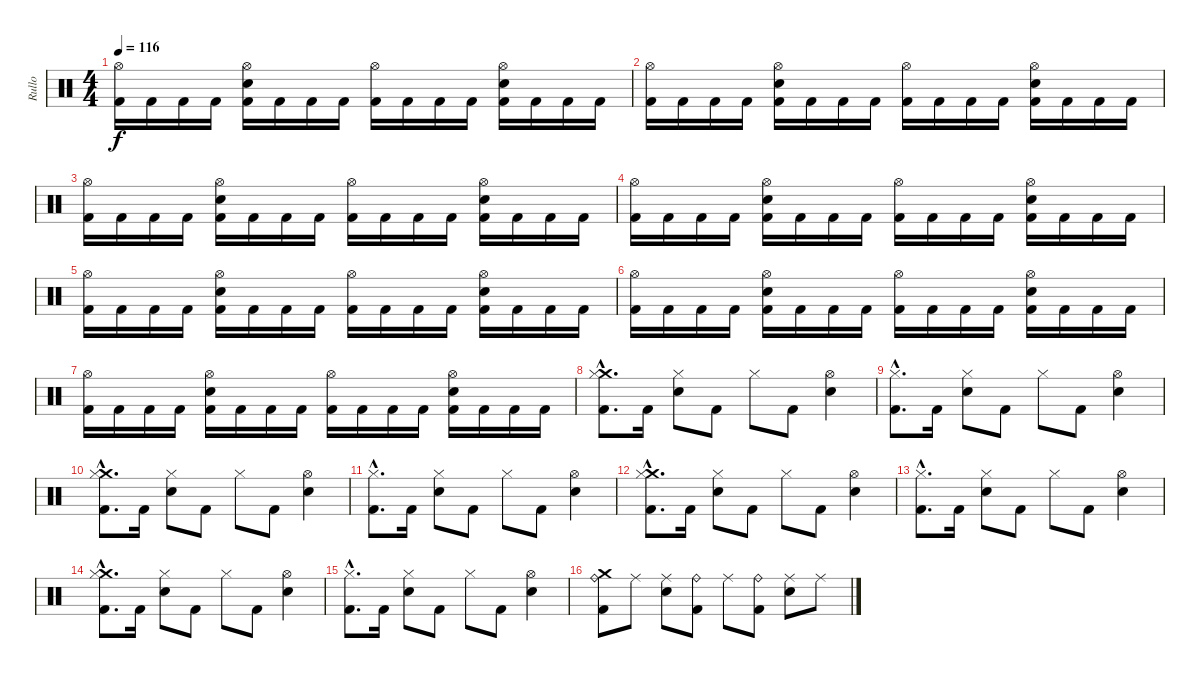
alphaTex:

\track ("Rullo" "Rullo") {instrument percussion}
\staff {score}
\articulation defaults
\ts (4 4)
\tempo 116
\clef neutral
\ks c
("Hi-Hat (open)" "Kick (hit) 2").16{dy f} "Kick (hit) 2".16 "Kick (hit) 2".16 "Kick (hit) 2".16 ("Hi-Hat (open)" "Electric Snare (hit)" "Kick (hit) 2").16 "Kick (hit) 2".16 "Kick (hit) 2".16 "Kick (hit) 2".16 ("Hi-Hat (open)" "Kick (hit) 2").16 "Kick (hit) 2".16 "Kick (hit) 2".16 "Kick (hit) 2".16 ("Hi-Hat (open)" "Electric Snare (hit)" "Kick (hit) 2").16 "Kick (hit) 2".16 "Kick (hit) 2".16 "Kick (hit) 2".16 |
("Hi-Hat (open)" "Kick (hit) 2").16 "Kick (hit) 2".16 "Kick (hit) 2".16 "Kick (hit) 2".16 ("Hi-Hat (open)" "Electric Snare (hit)" "Kick (hit) 2").16 "Kick (hit) 2".16 "Kick (hit) 2".16 "Kick (hit) 2".16 ("Hi-Hat (open)" "Kick (hit) 2").16 "Kick (hit) 2".16 "Kick (hit) 2".16 "Kick (hit) 2".16 ("Hi-Hat (open)" "Electric Snare (hit)" "Kick (hit) 2").16 "Kick (hit) 2".16 "Kick (hit) 2".16 "Kick (hit) 2".16 |
("Hi-Hat (open)" "Kick (hit) 2").16 "Kick (hit) 2".16 "Kick (hit) 2".16 "Kick (hit) 2".16 ("Hi-Hat (open)" "Electric Snare (hit)" "Kick (hit) 2").16 "Kick (hit) 2".16 "Kick (hit) 2".16 "Kick (hit) 2".16 ("Hi-Hat (open)" "Kick (hit) 2").16 "Kick (hit) 2".16 "Kick (hit) 2".16 "Kick (hit) 2".16 ("Hi-Hat (open)" "Electric Snare (hit)" "Kick (hit) 2").16 "Kick (hit) 2".16 "Kick (hit) 2".16 "Kick (hit) 2".16 |
("Hi-Hat (open)" "Kick (hit) 2").16 "Kick (hit) 2".16 "Kick (hit) 2".16 "Kick (hit) 2".16 ("Hi-Hat (open)" "Electric Snare (hit)" "Kick (hit) 2").16 "Kick (hit) 2".16 "Kick (hit) 2".16 "Kick (hit) 2".16 ("Hi-Hat (open)" "Kick (hit) 2").16 "Kick (hit) 2".16 "Kick (hit) 2".16 "Kick (hit) 2".16 ("Hi-Hat (open)" "Electric Snare (hit)" "Kick (hit) 2").16 "Kick (hit) 2".16 "Kick (hit) 2".16 "Kick (hit) 2".16 |
("Hi-Hat (open)" "Kick (hit) 2").16 "Kick (hit) 2".16 "Kick (hit) 2".16 "Kick (hit) 2".16 ("Hi-Hat (open)" "Electric Snare (hit)" "Kick (hit) 2").16 "Kick (hit) 2".16 "Kick (hit) 2".16 "Kick (hit) 2".16 ("Hi-Hat (open)" "Kick (hit) 2").16 "Kick (hit) 2".16 "Kick (hit) 2".16 "Kick (hit) 2".16 ("Hi-Hat (open)" "Electric Snare (hit)" "Kick (hit) 2").16 "Kick (hit) 2".16 "Kick (hit) 2".16 "Kick (hit) 2".16 |
("Hi-Hat (open)" "Kick (hit) 2").16 "Kick (hit) 2".16 "Kick (hit) 2".16 "Kick (hit) 2".16 ("Hi-Hat (open)" "Electric Snare (hit)" "Kick (hit) 2").16 "Kick (hit) 2".16 "Kick (hit) 2".16 "Kick (hit) 2".16 ("Hi-Hat (open)" "Kick (hit) 2").16 "Kick (hit) 2".16 "Kick (hit) 2".16 "Kick (hit) 2".16 ("Hi-Hat (open)" "Electric Snare (hit)" "Kick (hit) 2").16 "Kick (hit) 2".16 "Kick (hit) 2".16 "Kick (hit) 2".16 |
("Hi-Hat (open)" "Kick (hit) 2").16 "Kick (hit) 2".16 "Kick (hit) 2".16 "Kick (hit) 2".16 ("Hi-Hat (open)" "Electric Snare (hit)" "Kick (hit) 2").16 "Kick (hit) 2".16 "Kick (hit) 2".16 "Kick (hit) 2".16 ("Hi-Hat (open)" "Kick (hit) 2").16 "Kick (hit) 2".16 "Kick (hit) 2".16 "Kick (hit) 2".16 ("Hi-Hat (open)" "Electric Snare (hit)" "Kick (hit) 2").16 "Kick (hit) 2".16 "Kick (hit) 2".16 "Kick (hit) 2".16 |
("Crash medium (hit)"{hac} "Hi-Hat (closed)"{hac} "Kick (hit) 2"{hac}).8{d} "Kick (hit) 2".16 ("Hi-Hat (closed)" "Electric Snare (hit)").8 "Kick (hit) 2".8 "Hi-Hat (closed)".8 "Kick (hit) 2".8 ("Hi-Hat (open)" "Electric Snare (hit)").4 |
("Hi-Hat (closed)"{hac} "Kick (hit) 2"{hac}).8{d} "Kick (hit) 2".16 ("Hi-Hat (closed)" "Electric Snare (hit)").8 "Kick (hit) 2".8 "Hi-Hat (closed)".8 "Kick (hit) 2".8 ("Hi-Hat (open)" "Electric Snare (hit)").4 |
("Crash medium (hit)"{hac} "Hi-Hat (closed)"{hac} "Kick (hit) 2"{hac}).8{d} "Kick (hit) 2".16 ("Hi-Hat (closed)" "Electric Snare (hit)").8 "Kick (hit) 2".8 "Hi-Hat (closed)".8 "Kick (hit) 2".8 ("Hi-Hat (open)" "Electric Snare (hit)").4 |
("Hi-Hat (closed)"{hac} "Kick (hit) 2"{hac}).8{d} "Kick (hit) 2".16 ("Hi-Hat (closed)" "Electric Snare (hit)").8 "Kick (hit) 2".8 "Hi-Hat (closed)".8 "Kick (hit) 2".8 ("Hi-Hat (open)" "Electric Snare (hit)").4 |
("Crash medium (hit)"{hac} "Hi-Hat (closed)"{hac} "Kick (hit) 2"{hac}).8{d} "Kick (hit) 2".16 ("Hi-Hat (closed)" "Electric Snare (hit)").8 "Kick (hit) 2".8 "Hi-Hat (closed)".8 "Kick (hit) 2".8 ("Hi-Hat (open)" "Electric Snare (hit)").4 |
("Hi-Hat (closed)"{hac} "Kick (hit) 2"{hac}).8{d} "Kick (hit) 2".16 ("Hi-Hat (closed)" "Electric Snare (hit)").8 "Kick (hit) 2".8 "Hi-Hat (closed)".8 "Kick (hit) 2".8 ("Hi-Hat (open)" "Electric Snare (hit)").4 |
("Crash medium (hit)"{hac} "Hi-Hat (closed)"{hac} "Kick (hit) 2"{hac}).8{d} "Kick (hit) 2".16 ("Hi-Hat (closed)" "Electric Snare (hit)").8 "Kick (hit) 2".8 "Hi-Hat (closed)".8 "Kick (hit) 2".8 ("Hi-Hat (open)" "Electric Snare (hit)").4 |
("Hi-Hat (closed)"{hac} "Kick (hit) 2"{hac}).8{d} "Kick (hit) 2".16 ("Hi-Hat (closed)" "Electric Snare (hit)").8 "Kick (hit) 2".8 "Hi-Hat (closed)".8 "Kick (hit) 2".8 ("Hi-Hat (open)" "Electric Snare (hit)").4 |
("Crash medium (hit)" "Ride (bell)" "Kick (hit) 2").8 "Ride (middle)".8 ("Ride (middle)" "Electric Snare (hit)").8 ("Ride (bell)" "Kick (hit) 2").8 "Ride (middle)".8 ("Ride (bell)" "Kick (hit) 2").8 ("Ride (middle)" "Electric Snare (hit)").8 "Ride (middle)".8
